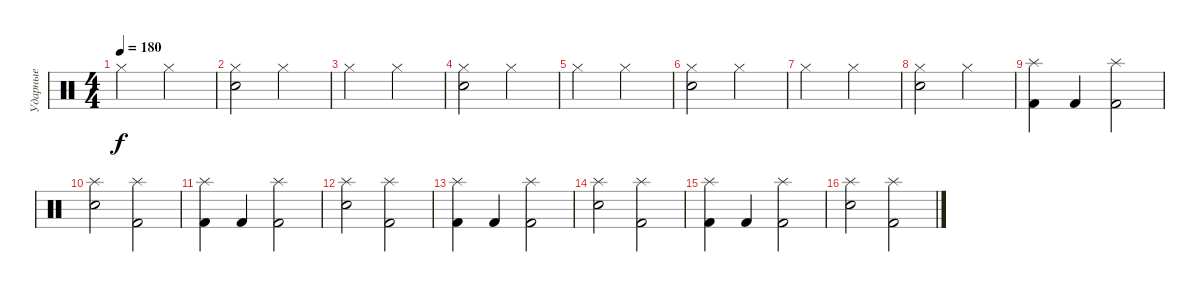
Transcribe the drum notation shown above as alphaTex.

\track ("Ударные" "Ударные") {instrument percussion}
\staff {score}
\articulation defaults
\ts (4 4)
\tempo 180
\clef neutral
\ks c "Hi-Hat (closed)".2{dy f} "Hi-Hat (closed)".2
|
("Hi-Hat (closed)" "Electric Snare (hit)").2 "Hi-Hat (closed)".2 |
"Hi-Hat (closed)".2 "Hi-Hat (closed)".2 |
("Hi-Hat (closed)" "Electric Snare (hit)").2 "Hi-Hat (closed)".2 |
"Hi-Hat (closed)".2 "Hi-Hat (closed)".2 |
("Hi-Hat (closed)" "Electric Snare (hit)").2 "Hi-Hat (closed)".2 |
"Hi-Hat (closed)".2 "Hi-Hat (closed)".2 |
("Hi-Hat (closed)" "Electric Snare (hit)").2 "Hi-Hat (closed)".2 |
("Splash (hit)" "Kick (hit) 2").4 "Kick (hit) 2".4 ("Splash (hit)" "Kick (hit) 2").2 |
("Splash (hit)" "Electric Snare (hit)").2 ("Splash (hit)" "Kick (hit) 2").2 |
("Splash (hit)" "Kick (hit) 2").4 "Kick (hit) 2".4 ("Splash (hit)" "Kick (hit) 2").2 |
("Splash (hit)" "Electric Snare (hit)").2 ("Splash (hit)" "Kick (hit) 2").2 |
("Splash (hit)" "Kick (hit) 2").4 "Kick (hit) 2".4 ("Splash (hit)" "Kick (hit) 2").2 |
("Splash (hit)" "Electric Snare (hit)").2 ("Splash (hit)" "Kick (hit) 2").2 |
("Splash (hit)" "Kick (hit) 2").4 "Kick (hit) 2".4 ("Splash (hit)" "Kick (hit) 2").2 |
("Splash (hit)" "Electric Snare (hit)").2 ("Splash (hit)" "Kick (hit) 2").2
